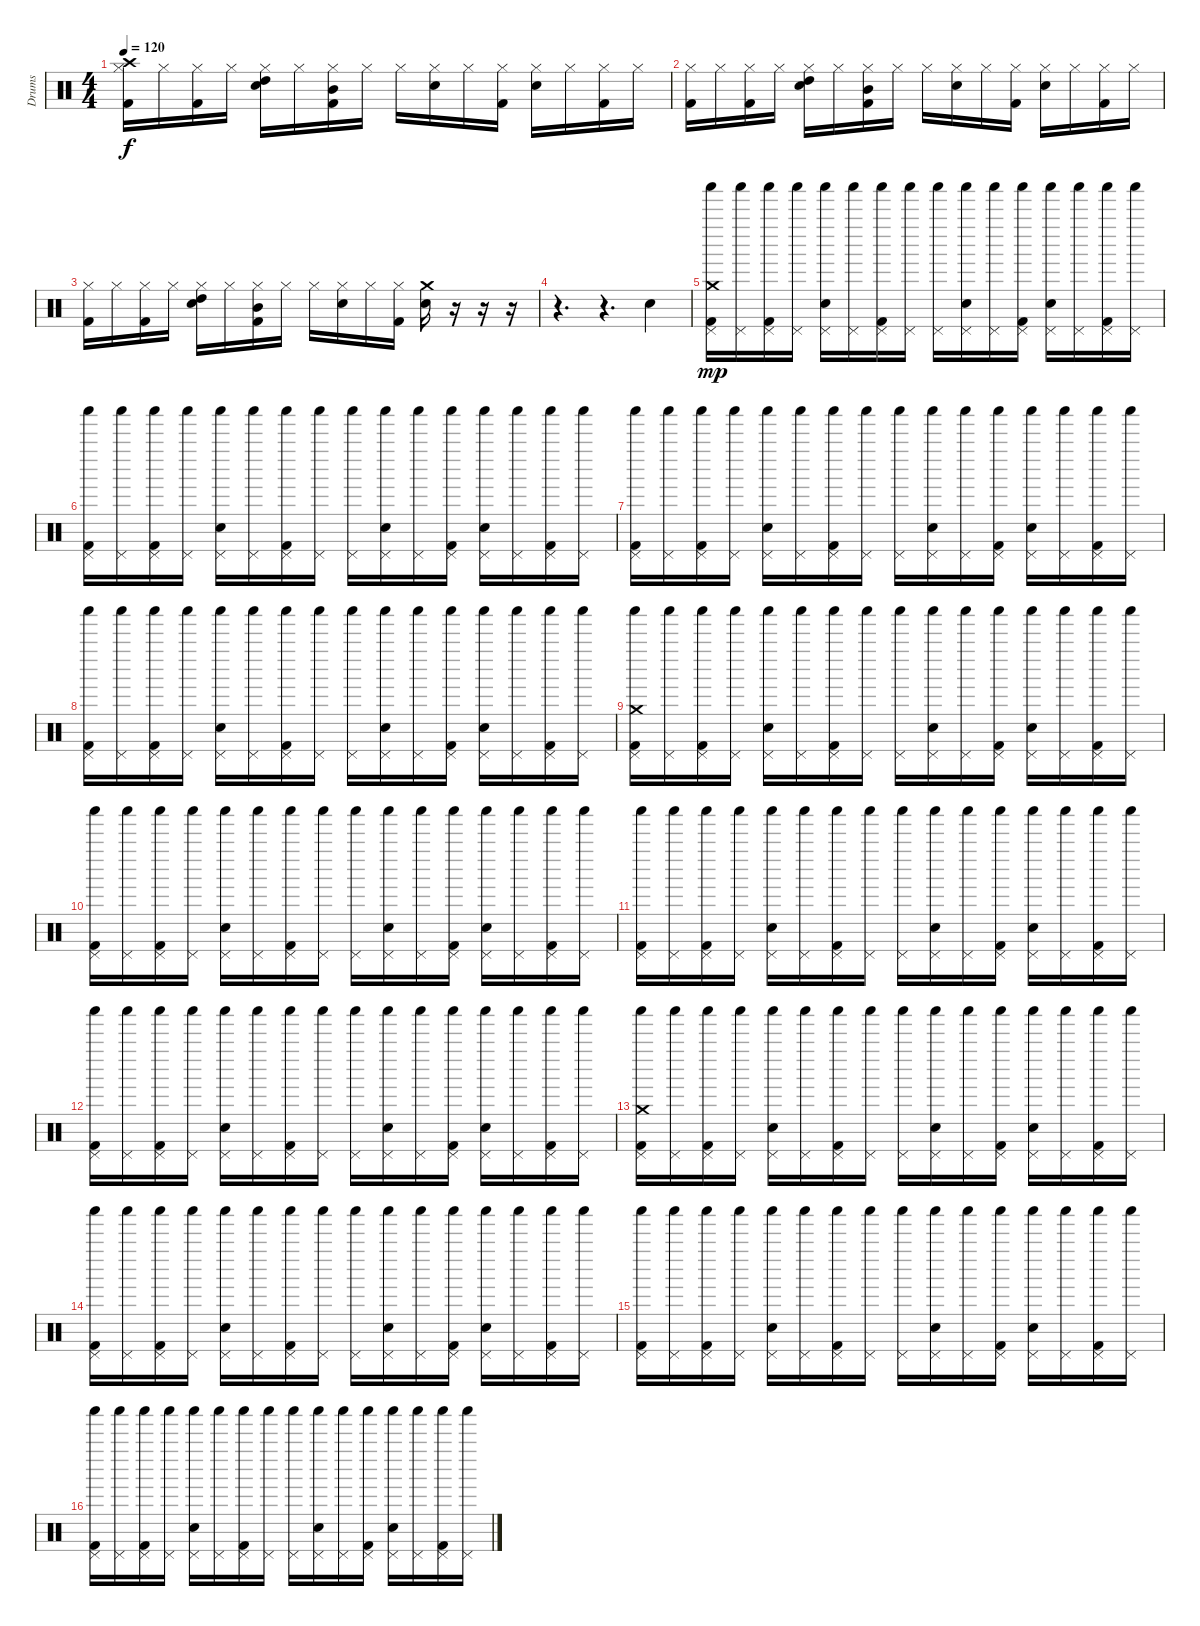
\track ("Drums" "Drums") {instrument percussion}
\staff {score}
\articulation defaults
\ts (4 4)
\tempo 120
\clef neutral
\ks c
("Hi-Hat (closed)" "Crash high (hit)" "Kick (hit) 2").16{dy f} "Hi-Hat (closed)".16 ("Hi-Hat (closed)" "Kick (hit) 2").16 "Hi-Hat (closed)".16 ("Hi-Hat (closed)" "High Tom (hit)" "Electric Snare (hit)").16 "Hi-Hat (closed)".16 ("Hi-Hat (closed)" "Mid Tom (hit)" "Kick (hit) 2").16 "Hi-Hat (closed)".16 "Hi-Hat (closed)".16 ("Hi-Hat (closed)" "Electric Snare (hit)").16 "Hi-Hat (closed)".16 ("Hi-Hat (closed)" "Kick (hit) 2").16 ("Hi-Hat (closed)" "Electric Snare (hit)").16 "Hi-Hat (closed)".16 ("Hi-Hat (closed)" "Kick (hit) 2").16 "Hi-Hat (closed)".16 |
("Hi-Hat (closed)" "Kick (hit) 2").16 "Hi-Hat (closed)".16 ("Hi-Hat (closed)" "Kick (hit) 2").16 "Hi-Hat (closed)".16 ("Hi-Hat (closed)" "High Tom (hit)" "Electric Snare (hit)").16 "Hi-Hat (closed)".16 ("Hi-Hat (closed)" "Mid Tom (hit)" "Kick (hit) 2").16 "Hi-Hat (closed)".16 "Hi-Hat (closed)".16 ("Hi-Hat (closed)" "Electric Snare (hit)").16 "Hi-Hat (closed)".16 ("Hi-Hat (closed)" "Kick (hit) 2").16 ("Hi-Hat (closed)" "Electric Snare (hit)").16 "Hi-Hat (closed)".16 ("Hi-Hat (closed)" "Kick (hit) 2").16 "Hi-Hat (closed)".16 |
("Hi-Hat (closed)" "Kick (hit) 2").16 "Hi-Hat (closed)".16 ("Hi-Hat (closed)" "Kick (hit) 2").16 "Hi-Hat (closed)".16 ("Hi-Hat (closed)" "High Tom (hit)" "Electric Snare (hit)").16 "Hi-Hat (closed)".16 ("Hi-Hat (closed)" "Mid Tom (hit)" "Kick (hit) 2").16 "Hi-Hat (closed)".16 "Hi-Hat (closed)".16 ("Hi-Hat (closed)" "Electric Snare (hit)").16 "Hi-Hat (closed)".16 ("Hi-Hat (closed)" "Kick (hit) 2").16 ("Crash medium (hit)" "Electric Snare (hit)").16 r.16 r.16 r.16 |
r.4{d} r.4{d} "Snare (hit) 2".4 |
("Shaker (hit)" "Pedal Hi-Hat (hit)" "Crash medium (hit)" "Kick (hit) 2").16{dy mp} ("Shaker (hit)" "Pedal Hi-Hat (hit)").16 ("Shaker (hit)" "Pedal Hi-Hat (hit)" "Kick (hit) 2").16 ("Shaker (hit)" "Pedal Hi-Hat (hit)").16 ("Shaker (hit)" "Pedal Hi-Hat (hit)" "Electric Snare (hit)").16 ("Shaker (hit)" "Pedal Hi-Hat (hit)").16 ("Shaker (hit)" "Pedal Hi-Hat (hit)" "Kick (hit) 2").16 ("Shaker (hit)" "Pedal Hi-Hat (hit)").16 ("Shaker (hit)" "Pedal Hi-Hat (hit)").16 ("Shaker (hit)" "Pedal Hi-Hat (hit)" "Electric Snare (hit)").16 ("Shaker (hit)" "Pedal Hi-Hat (hit)").16 ("Shaker (hit)" "Pedal Hi-Hat (hit)" "Kick (hit) 2").16 ("Shaker (hit)" "Pedal Hi-Hat (hit)" "Electric Snare (hit)").16 ("Shaker (hit)" "Pedal Hi-Hat (hit)").16 ("Shaker (hit)" "Pedal Hi-Hat (hit)" "Kick (hit) 2").16 ("Shaker (hit)" "Pedal Hi-Hat (hit)").16 |
("Shaker (hit)" "Pedal Hi-Hat (hit)" "Kick (hit) 2").16 ("Shaker (hit)" "Pedal Hi-Hat (hit)").16 ("Shaker (hit)" "Pedal Hi-Hat (hit)" "Kick (hit) 2").16 ("Shaker (hit)" "Pedal Hi-Hat (hit)").16 ("Shaker (hit)" "Pedal Hi-Hat (hit)" "Electric Snare (hit)").16 ("Shaker (hit)" "Pedal Hi-Hat (hit)").16 ("Shaker (hit)" "Pedal Hi-Hat (hit)" "Kick (hit) 2").16 ("Shaker (hit)" "Pedal Hi-Hat (hit)").16 ("Shaker (hit)" "Pedal Hi-Hat (hit)").16 ("Shaker (hit)" "Pedal Hi-Hat (hit)" "Electric Snare (hit)").16 ("Shaker (hit)" "Pedal Hi-Hat (hit)").16 ("Shaker (hit)" "Pedal Hi-Hat (hit)" "Kick (hit) 2").16 ("Shaker (hit)" "Pedal Hi-Hat (hit)" "Electric Snare (hit)").16 ("Shaker (hit)" "Pedal Hi-Hat (hit)").16 ("Shaker (hit)" "Pedal Hi-Hat (hit)" "Kick (hit) 2").16 ("Shaker (hit)" "Pedal Hi-Hat (hit)").16 |
("Shaker (hit)" "Pedal Hi-Hat (hit)" "Kick (hit) 2").16 ("Shaker (hit)" "Pedal Hi-Hat (hit)").16 ("Shaker (hit)" "Pedal Hi-Hat (hit)" "Kick (hit) 2").16 ("Shaker (hit)" "Pedal Hi-Hat (hit)").16 ("Shaker (hit)" "Pedal Hi-Hat (hit)" "Electric Snare (hit)").16 ("Shaker (hit)" "Pedal Hi-Hat (hit)").16 ("Shaker (hit)" "Pedal Hi-Hat (hit)" "Kick (hit) 2").16 ("Shaker (hit)" "Pedal Hi-Hat (hit)").16 ("Shaker (hit)" "Pedal Hi-Hat (hit)").16 ("Shaker (hit)" "Pedal Hi-Hat (hit)" "Electric Snare (hit)").16 ("Shaker (hit)" "Pedal Hi-Hat (hit)").16 ("Shaker (hit)" "Pedal Hi-Hat (hit)" "Kick (hit) 2").16 ("Shaker (hit)" "Pedal Hi-Hat (hit)" "Electric Snare (hit)").16 ("Shaker (hit)" "Pedal Hi-Hat (hit)").16 ("Shaker (hit)" "Pedal Hi-Hat (hit)" "Kick (hit) 2").16 ("Shaker (hit)" "Pedal Hi-Hat (hit)").16 |
("Shaker (hit)" "Pedal Hi-Hat (hit)" "Kick (hit) 2").16 ("Shaker (hit)" "Pedal Hi-Hat (hit)").16 ("Shaker (hit)" "Pedal Hi-Hat (hit)" "Kick (hit) 2").16 ("Shaker (hit)" "Pedal Hi-Hat (hit)").16 ("Shaker (hit)" "Pedal Hi-Hat (hit)" "Electric Snare (hit)").16 ("Shaker (hit)" "Pedal Hi-Hat (hit)").16 ("Shaker (hit)" "Pedal Hi-Hat (hit)" "Kick (hit) 2").16 ("Shaker (hit)" "Pedal Hi-Hat (hit)").16 ("Shaker (hit)" "Pedal Hi-Hat (hit)").16 ("Shaker (hit)" "Pedal Hi-Hat (hit)" "Electric Snare (hit)").16 ("Shaker (hit)" "Pedal Hi-Hat (hit)").16 ("Shaker (hit)" "Pedal Hi-Hat (hit)" "Kick (hit) 2").16 ("Shaker (hit)" "Pedal Hi-Hat (hit)" "Electric Snare (hit)").16 ("Shaker (hit)" "Pedal Hi-Hat (hit)").16 ("Shaker (hit)" "Pedal Hi-Hat (hit)" "Kick (hit) 2").16 ("Shaker (hit)" "Pedal Hi-Hat (hit)").16 |
("Shaker (hit)" "Pedal Hi-Hat (hit)" "Crash medium (hit)" "Kick (hit) 2").16 ("Shaker (hit)" "Pedal Hi-Hat (hit)").16 ("Shaker (hit)" "Pedal Hi-Hat (hit)" "Kick (hit) 2").16 ("Shaker (hit)" "Pedal Hi-Hat (hit)").16 ("Shaker (hit)" "Pedal Hi-Hat (hit)" "Electric Snare (hit)").16 ("Shaker (hit)" "Pedal Hi-Hat (hit)").16 ("Shaker (hit)" "Pedal Hi-Hat (hit)" "Kick (hit) 2").16 ("Shaker (hit)" "Pedal Hi-Hat (hit)").16 ("Shaker (hit)" "Pedal Hi-Hat (hit)").16 ("Shaker (hit)" "Pedal Hi-Hat (hit)" "Electric Snare (hit)").16 ("Shaker (hit)" "Pedal Hi-Hat (hit)").16 ("Shaker (hit)" "Pedal Hi-Hat (hit)" "Kick (hit) 2").16 ("Shaker (hit)" "Pedal Hi-Hat (hit)" "Electric Snare (hit)").16 ("Shaker (hit)" "Pedal Hi-Hat (hit)").16 ("Shaker (hit)" "Pedal Hi-Hat (hit)" "Kick (hit) 2").16 ("Shaker (hit)" "Pedal Hi-Hat (hit)").16 |
("Shaker (hit)" "Pedal Hi-Hat (hit)" "Kick (hit) 2").16 ("Shaker (hit)" "Pedal Hi-Hat (hit)").16 ("Shaker (hit)" "Pedal Hi-Hat (hit)" "Kick (hit) 2").16 ("Shaker (hit)" "Pedal Hi-Hat (hit)").16 ("Shaker (hit)" "Pedal Hi-Hat (hit)" "Electric Snare (hit)").16 ("Shaker (hit)" "Pedal Hi-Hat (hit)").16 ("Shaker (hit)" "Pedal Hi-Hat (hit)" "Kick (hit) 2").16 ("Shaker (hit)" "Pedal Hi-Hat (hit)").16 ("Shaker (hit)" "Pedal Hi-Hat (hit)").16 ("Shaker (hit)" "Pedal Hi-Hat (hit)" "Electric Snare (hit)").16 ("Shaker (hit)" "Pedal Hi-Hat (hit)").16 ("Shaker (hit)" "Pedal Hi-Hat (hit)" "Kick (hit) 2").16 ("Shaker (hit)" "Pedal Hi-Hat (hit)" "Electric Snare (hit)").16 ("Shaker (hit)" "Pedal Hi-Hat (hit)").16 ("Shaker (hit)" "Pedal Hi-Hat (hit)" "Kick (hit) 2").16 ("Shaker (hit)" "Pedal Hi-Hat (hit)").16 |
("Shaker (hit)" "Pedal Hi-Hat (hit)" "Kick (hit) 2").16 ("Shaker (hit)" "Pedal Hi-Hat (hit)").16 ("Shaker (hit)" "Pedal Hi-Hat (hit)" "Kick (hit) 2").16 ("Shaker (hit)" "Pedal Hi-Hat (hit)").16 ("Shaker (hit)" "Pedal Hi-Hat (hit)" "Electric Snare (hit)").16 ("Shaker (hit)" "Pedal Hi-Hat (hit)").16 ("Shaker (hit)" "Pedal Hi-Hat (hit)" "Kick (hit) 2").16 ("Shaker (hit)" "Pedal Hi-Hat (hit)").16 ("Shaker (hit)" "Pedal Hi-Hat (hit)").16 ("Shaker (hit)" "Pedal Hi-Hat (hit)" "Electric Snare (hit)").16 ("Shaker (hit)" "Pedal Hi-Hat (hit)").16 ("Shaker (hit)" "Pedal Hi-Hat (hit)" "Kick (hit) 2").16 ("Shaker (hit)" "Pedal Hi-Hat (hit)" "Electric Snare (hit)").16 ("Shaker (hit)" "Pedal Hi-Hat (hit)").16 ("Shaker (hit)" "Pedal Hi-Hat (hit)" "Kick (hit) 2").16 ("Shaker (hit)" "Pedal Hi-Hat (hit)").16 |
("Shaker (hit)" "Pedal Hi-Hat (hit)" "Kick (hit) 2").16 ("Shaker (hit)" "Pedal Hi-Hat (hit)").16 ("Shaker (hit)" "Pedal Hi-Hat (hit)" "Kick (hit) 2").16 ("Shaker (hit)" "Pedal Hi-Hat (hit)").16 ("Shaker (hit)" "Pedal Hi-Hat (hit)" "Electric Snare (hit)").16 ("Shaker (hit)" "Pedal Hi-Hat (hit)").16 ("Shaker (hit)" "Pedal Hi-Hat (hit)" "Kick (hit) 2").16 ("Shaker (hit)" "Pedal Hi-Hat (hit)").16 ("Shaker (hit)" "Pedal Hi-Hat (hit)").16 ("Shaker (hit)" "Pedal Hi-Hat (hit)" "Electric Snare (hit)").16 ("Shaker (hit)" "Pedal Hi-Hat (hit)").16 ("Shaker (hit)" "Pedal Hi-Hat (hit)" "Kick (hit) 2").16 ("Shaker (hit)" "Pedal Hi-Hat (hit)" "Electric Snare (hit)").16 ("Shaker (hit)" "Pedal Hi-Hat (hit)").16 ("Shaker (hit)" "Pedal Hi-Hat (hit)" "Kick (hit) 2").16 ("Shaker (hit)" "Pedal Hi-Hat (hit)").16 |
("Shaker (hit)" "Pedal Hi-Hat (hit)" "Crash medium (hit)" "Kick (hit) 2").16 ("Shaker (hit)" "Pedal Hi-Hat (hit)").16 ("Shaker (hit)" "Pedal Hi-Hat (hit)" "Kick (hit) 2").16 ("Shaker (hit)" "Pedal Hi-Hat (hit)").16 ("Shaker (hit)" "Pedal Hi-Hat (hit)" "Electric Snare (hit)").16 ("Shaker (hit)" "Pedal Hi-Hat (hit)").16 ("Shaker (hit)" "Pedal Hi-Hat (hit)" "Kick (hit) 2").16 ("Shaker (hit)" "Pedal Hi-Hat (hit)").16 ("Shaker (hit)" "Pedal Hi-Hat (hit)").16 ("Shaker (hit)" "Pedal Hi-Hat (hit)" "Electric Snare (hit)").16 ("Shaker (hit)" "Pedal Hi-Hat (hit)").16 ("Shaker (hit)" "Pedal Hi-Hat (hit)" "Kick (hit) 2").16 ("Shaker (hit)" "Pedal Hi-Hat (hit)" "Electric Snare (hit)").16 ("Shaker (hit)" "Pedal Hi-Hat (hit)").16 ("Shaker (hit)" "Pedal Hi-Hat (hit)" "Kick (hit) 2").16 ("Shaker (hit)" "Pedal Hi-Hat (hit)").16 |
("Shaker (hit)" "Pedal Hi-Hat (hit)" "Kick (hit) 2").16 ("Shaker (hit)" "Pedal Hi-Hat (hit)").16 ("Shaker (hit)" "Pedal Hi-Hat (hit)" "Kick (hit) 2").16 ("Shaker (hit)" "Pedal Hi-Hat (hit)").16 ("Shaker (hit)" "Pedal Hi-Hat (hit)" "Electric Snare (hit)").16 ("Shaker (hit)" "Pedal Hi-Hat (hit)").16 ("Shaker (hit)" "Pedal Hi-Hat (hit)" "Kick (hit) 2").16 ("Shaker (hit)" "Pedal Hi-Hat (hit)").16 ("Shaker (hit)" "Pedal Hi-Hat (hit)").16 ("Shaker (hit)" "Pedal Hi-Hat (hit)" "Electric Snare (hit)").16 ("Shaker (hit)" "Pedal Hi-Hat (hit)").16 ("Shaker (hit)" "Pedal Hi-Hat (hit)" "Kick (hit) 2").16 ("Shaker (hit)" "Pedal Hi-Hat (hit)" "Electric Snare (hit)").16 ("Shaker (hit)" "Pedal Hi-Hat (hit)").16 ("Shaker (hit)" "Pedal Hi-Hat (hit)" "Kick (hit) 2").16 ("Shaker (hit)" "Pedal Hi-Hat (hit)").16 |
("Shaker (hit)" "Pedal Hi-Hat (hit)" "Kick (hit) 2").16 ("Shaker (hit)" "Pedal Hi-Hat (hit)").16 ("Shaker (hit)" "Pedal Hi-Hat (hit)" "Kick (hit) 2").16 ("Shaker (hit)" "Pedal Hi-Hat (hit)").16 ("Shaker (hit)" "Pedal Hi-Hat (hit)" "Electric Snare (hit)").16 ("Shaker (hit)" "Pedal Hi-Hat (hit)").16 ("Shaker (hit)" "Pedal Hi-Hat (hit)" "Kick (hit) 2").16 ("Shaker (hit)" "Pedal Hi-Hat (hit)").16 ("Shaker (hit)" "Pedal Hi-Hat (hit)").16 ("Shaker (hit)" "Pedal Hi-Hat (hit)" "Electric Snare (hit)").16 ("Shaker (hit)" "Pedal Hi-Hat (hit)").16 ("Shaker (hit)" "Pedal Hi-Hat (hit)" "Kick (hit) 2").16 ("Shaker (hit)" "Pedal Hi-Hat (hit)" "Electric Snare (hit)").16 ("Shaker (hit)" "Pedal Hi-Hat (hit)").16 ("Shaker (hit)" "Pedal Hi-Hat (hit)" "Kick (hit) 2").16 ("Shaker (hit)" "Pedal Hi-Hat (hit)").16 |
("Shaker (hit)" "Pedal Hi-Hat (hit)" "Kick (hit) 2").16 ("Shaker (hit)" "Pedal Hi-Hat (hit)").16 ("Shaker (hit)" "Pedal Hi-Hat (hit)" "Kick (hit) 2").16 ("Shaker (hit)" "Pedal Hi-Hat (hit)").16 ("Shaker (hit)" "Pedal Hi-Hat (hit)" "Electric Snare (hit)").16 ("Shaker (hit)" "Pedal Hi-Hat (hit)").16 ("Shaker (hit)" "Pedal Hi-Hat (hit)" "Kick (hit) 2").16 ("Shaker (hit)" "Pedal Hi-Hat (hit)").16 ("Shaker (hit)" "Pedal Hi-Hat (hit)").16 ("Shaker (hit)" "Pedal Hi-Hat (hit)" "Electric Snare (hit)").16 ("Shaker (hit)" "Pedal Hi-Hat (hit)").16 ("Shaker (hit)" "Pedal Hi-Hat (hit)" "Kick (hit) 2").16 ("Shaker (hit)" "Pedal Hi-Hat (hit)" "Electric Snare (hit)").16 ("Shaker (hit)" "Pedal Hi-Hat (hit)").16 ("Shaker (hit)" "Pedal Hi-Hat (hit)" "Kick (hit) 2").16 ("Shaker (hit)" "Pedal Hi-Hat (hit)").16
